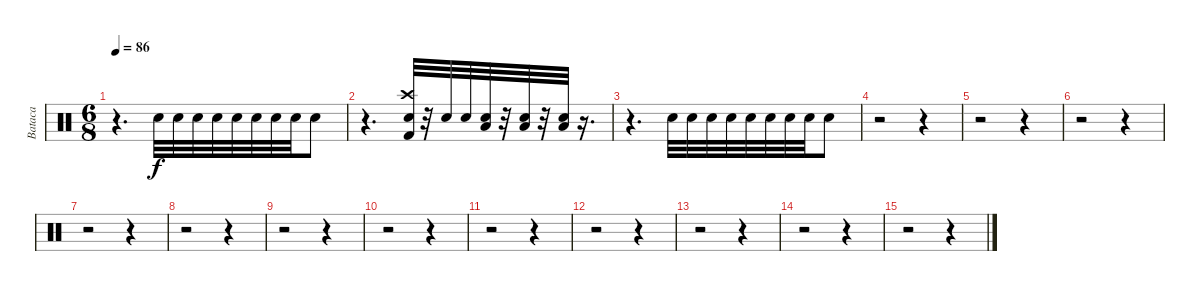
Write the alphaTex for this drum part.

\track ("Bataca" "Bataca") {instrument percussion}
\staff {score}
\articulation defaults
\ts (6 8)
\tempo 86
\clef neutral
\ks c
r.4{d dy f} "Snare (hit) 2".32 "Snare (hit) 2".32 "Snare (hit) 2".32 "Snare (hit) 2".32 "Snare (hit) 2".32 "Snare (hit) 2".32 "Snare (hit) 2".32 "Snare (hit) 2".32 "Snare (hit) 2".8 |
r.4{d} ("Crash high (hit)" "Snare (hit) 2" "Kick (hit) 2").32 r.32 "Snare (hit) 2".32 "Snare (hit) 2".32 ("Snare (hit) 2" "Low Floor Tom (hit)").32 r.32 ("Snare (hit) 2" "Low Floor Tom (hit)").32 r.32 ("Snare (hit) 2" "Low Floor Tom (hit)").32 r.16{d} |
r.4{d} "Snare (hit) 2".32 "Snare (hit) 2".32 "Snare (hit) 2".32 "Snare (hit) 2".32 "Snare (hit) 2".32 "Snare (hit) 2".32 "Snare (hit) 2".32 "Snare (hit) 2".32 "Snare (hit) 2".8 |
r.2 r.4 |
r.2 r.4 |
r.2 r.4 |
r.2 r.4 |
r.2 r.4 |
r.2 r.4 |
r.2 r.4 |
r.2 r.4 |
r.2 r.4 |
r.2 r.4 |
r.2 r.4 |
r.2 r.4
